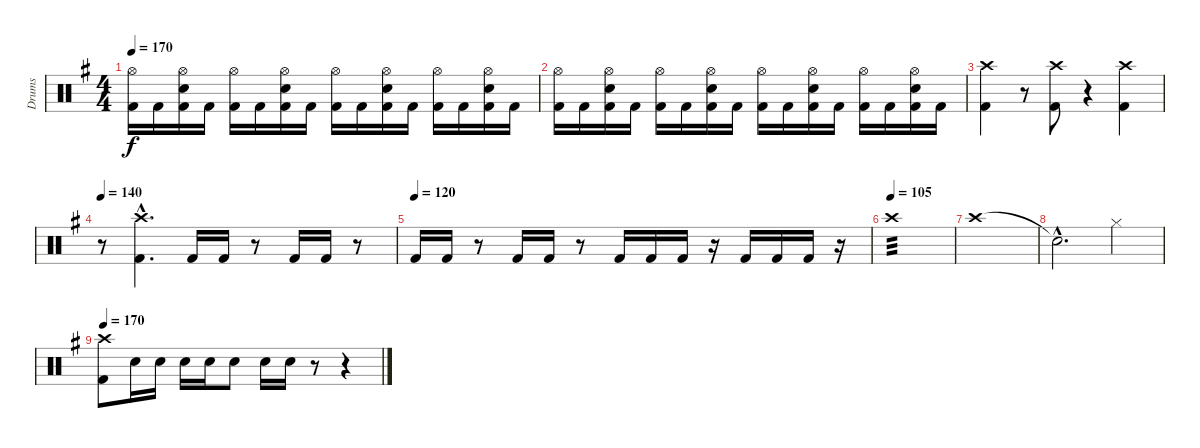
\track ("Drums" "Drums") {instrument percussion}
\staff {score}
\articulation defaults
\ts (4 4)
\tempo 170
\clef neutral
\ks g
("Hi-Hat (open)" "Kick (hit) 2").16{dy f} "Kick (hit) 2".16 ("Hi-Hat (open)" "Snare (hit) 2" "Kick (hit) 2").16 "Kick (hit) 2".16 ("Hi-Hat (open)" "Kick (hit) 2").16 "Kick (hit) 2".16 ("Hi-Hat (open)" "Snare (hit) 2" "Kick (hit) 2").16 "Kick (hit) 2".16 ("Hi-Hat (open)" "Kick (hit) 2").16 "Kick (hit) 2".16 ("Hi-Hat (open)" "Snare (hit) 2" "Kick (hit) 2").16 "Kick (hit) 2".16 ("Hi-Hat (open)" "Kick (hit) 2").16 "Kick (hit) 2".16 ("Hi-Hat (open)" "Snare (hit) 2" "Kick (hit) 2").16 "Kick (hit) 2".16 |
("Hi-Hat (open)" "Kick (hit) 2").16 "Kick (hit) 2".16 ("Hi-Hat (open)" "Snare (hit) 2" "Kick (hit) 2").16 "Kick (hit) 2".16 ("Hi-Hat (open)" "Kick (hit) 2").16 "Kick (hit) 2".16 ("Hi-Hat (open)" "Snare (hit) 2" "Kick (hit) 2").16 "Kick (hit) 2".16 ("Hi-Hat (open)" "Kick (hit) 2").16 "Kick (hit) 2".16 ("Hi-Hat (open)" "Snare (hit) 2" "Kick (hit) 2").16 "Kick (hit) 2".16 ("Hi-Hat (open)" "Kick (hit) 2").16 "Kick (hit) 2".16 ("Hi-Hat (open)" "Snare (hit) 2" "Kick (hit) 2").16 "Kick (hit) 2".16 |
("Crash high (hit)" "Kick (hit) 2").4 r.8 ("Crash high (hit)" "Kick (hit) 2").8 r.4 ("Crash high (hit)" "Kick (hit) 2").4 |
\tempo 140
r.8 ("Crash high (hit)"{hac} "Kick (hit) 2"{hac}).4{d} "Kick (hit) 2".16 "Kick (hit) 2".16 r.8 "Kick (hit) 2".16 "Kick (hit) 2".16 r.8 |
\tempo (120)
"Kick (hit) 2".16 "Kick (hit) 2".16 r.8 "Kick (hit) 2".16 "Kick (hit) 2".16 r.8 "Kick (hit) 2".16 "Kick (hit) 2".16 "Kick (hit) 2".16 r.16 "Kick (hit) 2".16 "Kick (hit) 2".16 "Kick (hit) 2".16 r.16 |
\tempo (105)
"Crash high (hit)".1{tp 3} |
"Crash high (hit)".1 |
"Snare (hit)"{hac t}.2{d} "Hi-Hat (closed)".4 |
\tempo 170
("Crash high (hit)" "Kick (hit) 2").8 "Snare (hit) 2".16 "Snare (hit) 2".16 "Snare (hit) 2".16 "Snare (hit) 2".16 "Snare (hit) 2".8 "Snare (hit) 2".16 "Snare (hit) 2".16 r.8 r.4
